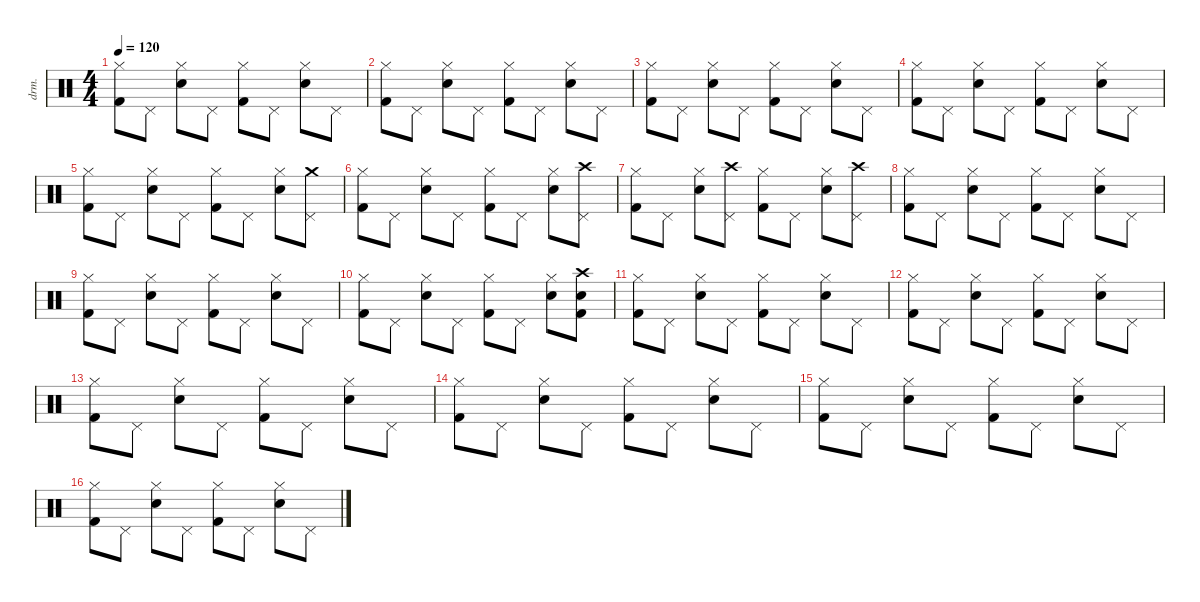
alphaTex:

\defaultSystemsLayout 4
\hideDynamics
\bracketExtendMode nobrackets
\otherSystemsTrackNameOrientation horizontal
\track ("Percussion" "drm.") {instrument percussion}
\staff {score}
\articulation defaults
\ts (4 4)
\tempo 120
\clef neutral
\ks c
("Kick (hit) 2" "Hi-Hat (closed)").8{dy f beam Down} "Pedal Hi-Hat (hit)".8{beam Down} ("Snare (hit) 2" "Hi-Hat (closed)").8{beam Down} "Pedal Hi-Hat (hit)".8{beam Down} ("Kick (hit) 2" "Hi-Hat (closed)").8{beam Down} "Pedal Hi-Hat (hit)".8{beam Down} ("Snare (hit) 2" "Hi-Hat (closed)").8{beam Down} "Pedal Hi-Hat (hit)".8{beam Down} |
("Kick (hit) 2" "Hi-Hat (closed)").8{beam Down} "Pedal Hi-Hat (hit)".8{beam Down} ("Snare (hit) 2" "Hi-Hat (closed)").8{beam Down} "Pedal Hi-Hat (hit)".8{beam Down} ("Kick (hit) 2" "Hi-Hat (closed)").8{beam Down} "Pedal Hi-Hat (hit)".8{beam Down} ("Snare (hit) 2" "Hi-Hat (closed)").8{beam Down} "Pedal Hi-Hat (hit)".8{beam Down} |
("Kick (hit) 2" "Hi-Hat (closed)").8{beam Down} "Pedal Hi-Hat (hit)".8{beam Down} ("Snare (hit) 2" "Hi-Hat (closed)").8{beam Down} "Pedal Hi-Hat (hit)".8{beam Down} ("Kick (hit) 2" "Hi-Hat (closed)").8{beam Down} "Pedal Hi-Hat (hit)".8{beam Down} ("Snare (hit) 2" "Hi-Hat (closed)").8{beam Down} "Pedal Hi-Hat (hit)".8{beam Down} |
("Kick (hit) 2" "Hi-Hat (closed)").8{beam Down} "Pedal Hi-Hat (hit)".8{beam Down} ("Snare (hit) 2" "Hi-Hat (closed)").8{beam Down} "Pedal Hi-Hat (hit)".8{beam Down} ("Kick (hit) 2" "Hi-Hat (closed)").8{beam Down} "Pedal Hi-Hat (hit)".8{beam Down} ("Snare (hit) 2" "Hi-Hat (closed)").8{beam Down} "Pedal Hi-Hat (hit)".8{beam Down} |
("Kick (hit) 2" "Hi-Hat (closed)").8{beam Down} "Pedal Hi-Hat (hit)".8{beam Down} ("Snare (hit) 2" "Hi-Hat (closed)").8{beam Down} "Pedal Hi-Hat (hit)".8{beam Down} ("Kick (hit) 2" "Hi-Hat (closed)").8{beam Down} "Pedal Hi-Hat (hit)".8{beam Down} ("Snare (hit) 2" "Hi-Hat (closed)").8{beam Down} ("Pedal Hi-Hat (hit)" "Crash medium (hit)").8{beam Down} |
("Kick (hit) 2" "Hi-Hat (closed)").8{beam Down} "Pedal Hi-Hat (hit)".8{beam Down} ("Snare (hit) 2" "Hi-Hat (closed)").8{beam Down} "Pedal Hi-Hat (hit)".8{beam Down} ("Kick (hit) 2" "Hi-Hat (closed)").8{beam Down} "Pedal Hi-Hat (hit)".8{beam Down} ("Snare (hit) 2" "Hi-Hat (closed)").8{beam Down} ("Pedal Hi-Hat (hit)" "Crash high (hit)").8{beam Down} |
("Kick (hit) 2" "Hi-Hat (closed)").8{beam Down} "Pedal Hi-Hat (hit)".8{beam Down} ("Snare (hit) 2" "Hi-Hat (closed)").8{beam Down} ("Pedal Hi-Hat (hit)" "Crash high (hit)").8{beam Down} ("Kick (hit) 2" "Hi-Hat (closed)").8{beam Down} "Pedal Hi-Hat (hit)".8{beam Down} ("Snare (hit) 2" "Hi-Hat (closed)").8{beam Down} ("Pedal Hi-Hat (hit)" "Crash high (hit)").8{beam Down} |
("Kick (hit) 2" "Hi-Hat (closed)").8{beam Down} "Pedal Hi-Hat (hit)".8{beam Down} ("Snare (hit) 2" "Hi-Hat (closed)").8{beam Down} "Pedal Hi-Hat (hit)".8{beam Down} ("Kick (hit) 2" "Hi-Hat (closed)").8{beam Down} "Pedal Hi-Hat (hit)".8{beam Down} ("Snare (hit) 2" "Hi-Hat (closed)").8{beam Down} "Pedal Hi-Hat (hit)".8{beam Down} |
("Kick (hit) 2" "Hi-Hat (closed)").8{beam Down} "Pedal Hi-Hat (hit)".8{beam Down} ("Snare (hit) 2" "Hi-Hat (closed)").8{beam Down} "Pedal Hi-Hat (hit)".8{beam Down} ("Kick (hit) 2" "Hi-Hat (closed)").8{beam Down} "Pedal Hi-Hat (hit)".8{beam Down} ("Snare (hit) 2" "Hi-Hat (closed)").8{beam Down} "Pedal Hi-Hat (hit)".8{beam Down} |
("Kick (hit) 2" "Hi-Hat (closed)").8{beam Down} "Pedal Hi-Hat (hit)".8{beam Down} ("Snare (hit) 2" "Hi-Hat (closed)").8{beam Down} "Pedal Hi-Hat (hit)".8{beam Down} ("Kick (hit) 2" "Hi-Hat (closed)").8{beam Down} "Pedal Hi-Hat (hit)".8{beam Down} ("Snare (hit) 2" "Hi-Hat (closed)").8{beam Down} ("Kick (hit) 2" "Snare (hit) 2" "Crash high (hit)").8{beam Down} |
("Kick (hit) 2" "Hi-Hat (closed)").8{beam Down} "Pedal Hi-Hat (hit)".8{beam Down} ("Snare (hit) 2" "Hi-Hat (closed)").8{beam Down} "Pedal Hi-Hat (hit)".8{beam Down} ("Kick (hit) 2" "Hi-Hat (closed)").8{beam Down} "Pedal Hi-Hat (hit)".8{beam Down} ("Snare (hit) 2" "Hi-Hat (closed)").8{beam Down} "Pedal Hi-Hat (hit)".8{beam Down} |
("Kick (hit) 2" "Hi-Hat (closed)").8{beam Down} "Pedal Hi-Hat (hit)".8{beam Down} ("Snare (hit) 2" "Hi-Hat (closed)").8{beam Down} "Pedal Hi-Hat (hit)".8{beam Down} ("Kick (hit) 2" "Hi-Hat (closed)").8{beam Down} "Pedal Hi-Hat (hit)".8{beam Down} ("Snare (hit) 2" "Hi-Hat (closed)").8{beam Down} "Pedal Hi-Hat (hit)".8{beam Down} |
("Kick (hit) 2" "Hi-Hat (closed)").8{beam Down} "Pedal Hi-Hat (hit)".8{beam Down} ("Snare (hit) 2" "Hi-Hat (closed)").8{beam Down} "Pedal Hi-Hat (hit)".8{beam Down} ("Kick (hit) 2" "Hi-Hat (closed)").8{beam Down} "Pedal Hi-Hat (hit)".8{beam Down} ("Snare (hit) 2" "Hi-Hat (closed)").8{beam Down} "Pedal Hi-Hat (hit)".8{beam Down} |
("Kick (hit) 2" "Hi-Hat (closed)").8{beam Down} "Pedal Hi-Hat (hit)".8{beam Down} ("Snare (hit) 2" "Hi-Hat (closed)").8{beam Down} "Pedal Hi-Hat (hit)".8{beam Down} ("Kick (hit) 2" "Hi-Hat (closed)").8{beam Down} "Pedal Hi-Hat (hit)".8{beam Down} ("Snare (hit) 2" "Hi-Hat (closed)").8{beam Down} "Pedal Hi-Hat (hit)".8{beam Down} |
("Kick (hit) 2" "Hi-Hat (closed)").8{beam Down} "Pedal Hi-Hat (hit)".8{beam Down} ("Snare (hit) 2" "Hi-Hat (closed)").8{beam Down} "Pedal Hi-Hat (hit)".8{beam Down} ("Kick (hit) 2" "Hi-Hat (closed)").8{beam Down} "Pedal Hi-Hat (hit)".8{beam Down} ("Snare (hit) 2" "Hi-Hat (closed)").8{beam Down} "Pedal Hi-Hat (hit)".8{beam Down} |
("Kick (hit) 2" "Hi-Hat (closed)").8{beam Down} "Pedal Hi-Hat (hit)".8{beam Down} ("Snare (hit) 2" "Hi-Hat (closed)").8{beam Down} "Pedal Hi-Hat (hit)".8{beam Down} ("Kick (hit) 2" "Hi-Hat (closed)").8{beam Down} "Pedal Hi-Hat (hit)".8{beam Down} ("Snare (hit) 2" "Hi-Hat (closed)").8{beam Down} "Pedal Hi-Hat (hit)".8{beam Down}
